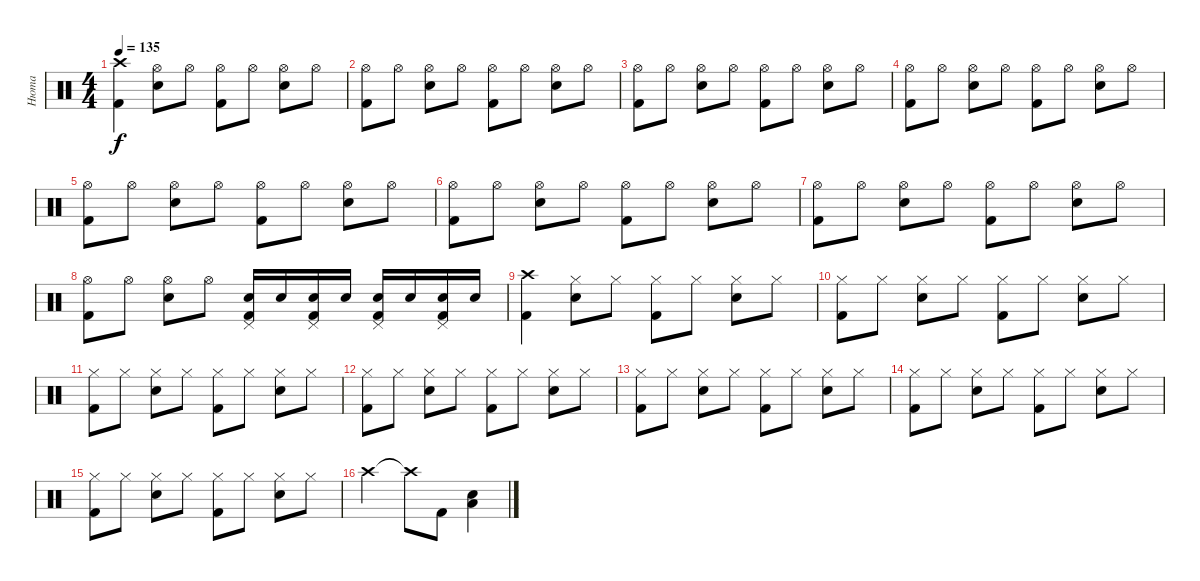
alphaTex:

\track ("Нюта" "Нюта") {instrument percussion}
\staff {score}
\articulation defaults
\ts (4 4)
\tempo 135
\clef neutral
\ks c
("Crash high (hit)" "Kick (hit) 2").4{dy f} ("Hi-Hat (open)" "Electric Snare (hit)").8 "Hi-Hat (open)".8 ("Hi-Hat (open)" "Kick (hit) 2").8 "Hi-Hat (open)".8 ("Hi-Hat (open)" "Electric Snare (hit)").8 "Hi-Hat (open)".8 |
("Hi-Hat (open)" "Kick (hit) 2").8 "Hi-Hat (open)".8 ("Hi-Hat (open)" "Electric Snare (hit)").8 "Hi-Hat (open)".8 ("Hi-Hat (open)" "Kick (hit) 2").8 "Hi-Hat (open)".8 ("Hi-Hat (open)" "Electric Snare (hit)").8 "Hi-Hat (open)".8 |
("Hi-Hat (open)" "Kick (hit) 2").8 "Hi-Hat (open)".8 ("Hi-Hat (open)" "Electric Snare (hit)").8 "Hi-Hat (open)".8 ("Hi-Hat (open)" "Kick (hit) 2").8 "Hi-Hat (open)".8 ("Hi-Hat (open)" "Electric Snare (hit)").8 "Hi-Hat (open)".8 |
("Hi-Hat (open)" "Kick (hit) 2").8 "Hi-Hat (open)".8 ("Hi-Hat (open)" "Electric Snare (hit)").8 "Hi-Hat (open)".8 ("Hi-Hat (open)" "Kick (hit) 2").8 "Hi-Hat (open)".8 ("Hi-Hat (open)" "Electric Snare (hit)").8 "Hi-Hat (open)".8 |
("Hi-Hat (open)" "Kick (hit) 2").8 "Hi-Hat (open)".8 ("Hi-Hat (open)" "Electric Snare (hit)").8 "Hi-Hat (open)".8 ("Hi-Hat (open)" "Kick (hit) 2").8 "Hi-Hat (open)".8 ("Hi-Hat (open)" "Electric Snare (hit)").8 "Hi-Hat (open)".8 |
("Hi-Hat (open)" "Kick (hit) 2").8 "Hi-Hat (open)".8 ("Hi-Hat (open)" "Electric Snare (hit)").8 "Hi-Hat (open)".8 ("Hi-Hat (open)" "Kick (hit) 2").8 "Hi-Hat (open)".8 ("Hi-Hat (open)" "Electric Snare (hit)").8 "Hi-Hat (open)".8 |
("Hi-Hat (open)" "Kick (hit) 2").8 "Hi-Hat (open)".8 ("Hi-Hat (open)" "Electric Snare (hit)").8 "Hi-Hat (open)".8 ("Hi-Hat (open)" "Kick (hit) 2").8 "Hi-Hat (open)".8 ("Hi-Hat (open)" "Electric Snare (hit)").8 "Hi-Hat (open)".8 |
("Hi-Hat (open)" "Kick (hit) 2").8 "Hi-Hat (open)".8 ("Hi-Hat (open)" "Electric Snare (hit)").8 "Hi-Hat (open)".8 ("Electric Snare (hit)" "Kick (hit) 2" "Pedal Hi-Hat (hit)").16 "Electric Snare (hit)".16 ("Electric Snare (hit)" "Kick (hit) 2" "Pedal Hi-Hat (hit)").16 "Electric Snare (hit)".16 ("Electric Snare (hit)" "Kick (hit) 2" "Pedal Hi-Hat (hit)").16 "Electric Snare (hit)".16 ("Electric Snare (hit)" "Kick (hit) 2" "Pedal Hi-Hat (hit)").16 "Electric Snare (hit)".16 |
("Crash high (hit)" "Kick (hit) 2").4 ("Hi-Hat (closed)" "Electric Snare (hit)").8 "Hi-Hat (closed)".8 ("Hi-Hat (closed)" "Kick (hit) 2").8 "Hi-Hat (closed)".8 ("Hi-Hat (closed)" "Electric Snare (hit)").8 "Hi-Hat (closed)".8 |
("Hi-Hat (closed)" "Kick (hit) 2").8 "Hi-Hat (closed)".8 ("Hi-Hat (closed)" "Electric Snare (hit)").8 "Hi-Hat (closed)".8 ("Hi-Hat (closed)" "Kick (hit) 2").8 "Hi-Hat (closed)".8 ("Hi-Hat (closed)" "Electric Snare (hit)").8 "Hi-Hat (closed)".8 |
("Hi-Hat (closed)" "Kick (hit) 2").8 "Hi-Hat (closed)".8 ("Hi-Hat (closed)" "Electric Snare (hit)").8 "Hi-Hat (closed)".8 ("Hi-Hat (closed)" "Kick (hit) 2").8 "Hi-Hat (closed)".8 ("Hi-Hat (closed)" "Electric Snare (hit)").8 "Hi-Hat (closed)".8 |
("Hi-Hat (closed)" "Kick (hit) 2").8 "Hi-Hat (closed)".8 ("Hi-Hat (closed)" "Electric Snare (hit)").8 "Hi-Hat (closed)".8 ("Hi-Hat (closed)" "Kick (hit) 2").8 "Hi-Hat (closed)".8 ("Hi-Hat (closed)" "Electric Snare (hit)").8 "Hi-Hat (closed)".8 |
("Hi-Hat (closed)" "Kick (hit) 2").8 "Hi-Hat (closed)".8 ("Hi-Hat (closed)" "Electric Snare (hit)").8 "Hi-Hat (closed)".8 ("Hi-Hat (closed)" "Kick (hit) 2").8 "Hi-Hat (closed)".8 ("Hi-Hat (closed)" "Electric Snare (hit)").8 "Hi-Hat (closed)".8 |
("Hi-Hat (closed)" "Kick (hit) 2").8 "Hi-Hat (closed)".8 ("Hi-Hat (closed)" "Electric Snare (hit)").8 "Hi-Hat (closed)".8 ("Hi-Hat (closed)" "Kick (hit) 2").8 "Hi-Hat (closed)".8 ("Hi-Hat (closed)" "Electric Snare (hit)").8 "Hi-Hat (closed)".8 |
("Hi-Hat (closed)" "Kick (hit) 2").8 "Hi-Hat (closed)".8 ("Hi-Hat (closed)" "Electric Snare (hit)").8 "Hi-Hat (closed)".8 ("Hi-Hat (closed)" "Kick (hit) 2").8 "Hi-Hat (closed)".8 ("Hi-Hat (closed)" "Electric Snare (hit)").8 "Hi-Hat (closed)".8 |
"Crash high (hit)".2 "Crash high (hit)"{t}.8 "Kick (hit) 2".8 ("Electric Snare (hit)" "Low Tom (hit)").4
